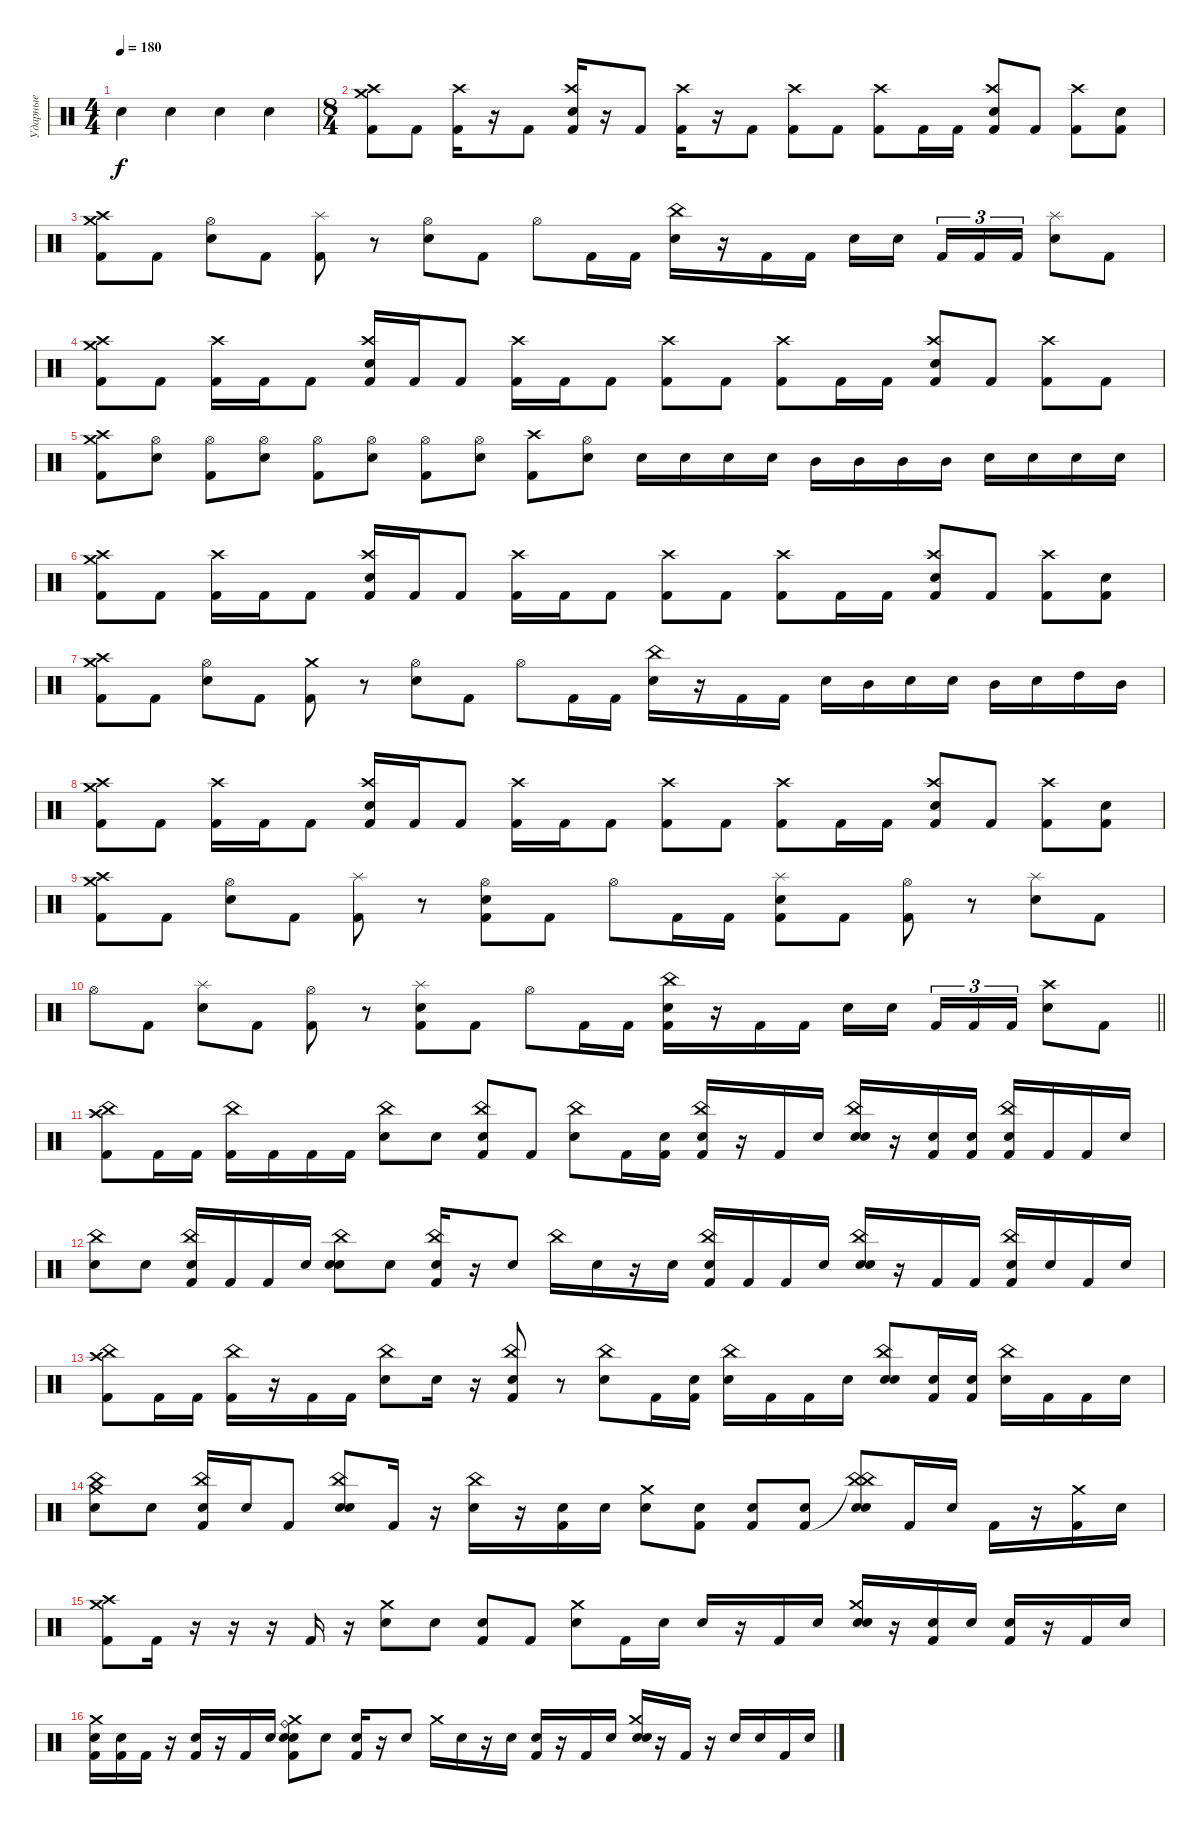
\track ("Ударные" "Ударные") {instrument percussion}
\staff {score}
\articulation defaults
\ts (4 4)
\tempo 180
\clef neutral
\ks c "Electric Snare (hit)".4{dy f} "Electric Snare (hit)".4 "Electric Snare (hit)".4 "Electric Snare (hit)".4
|
\ts (8 4)
("Crash high (hit)" "Crash medium (hit)" "Kick (hit) 2").8 "Kick (hit) 2".8 ("Crash high (hit)" "Kick (hit) 2").16 r.16 "Kick (hit) 2".8 ("Crash high (hit)" "Electric Snare (hit)" "Kick (hit) 2").16 r.16 "Kick (hit) 2".8 ("Crash high (hit)" "Kick (hit) 2").16 r.16 "Kick (hit) 2".8 ("Crash high (hit)" "Kick (hit) 2").8 "Kick (hit) 2".8 ("Crash high (hit)" "Kick (hit) 2").8 "Kick (hit) 2".16 "Kick (hit) 2".16 ("Crash high (hit)" "Electric Snare (hit)" "Kick (hit) 2").8 "Kick (hit) 2".8 ("Crash high (hit)" "Kick (hit) 2").8 ("Electric Snare (hit)" "Kick (hit) 2").8 |
("Crash medium (hit)" "Crash high (hit)" "Kick (hit) 2").8 "Kick (hit) 2".8 ("Hi-Hat (open)" "Electric Snare (hit)").8 "Kick (hit) 2".8 ("Splash (hit)" "Kick (hit) 2").8 r.8 ("Hi-Hat (open)" "Electric Snare (hit)").8 "Kick (hit) 2".8 "Hi-Hat (open)".8 "Kick (hit) 2".16 "Kick (hit) 2".16 ("China (hit)" "Electric Snare (hit)").16 r.16 "Kick (hit) 2".16 "Kick (hit) 2".16 "Electric Snare (hit)".16 "Electric Snare (hit)".16 "Kick (hit) 2".16{tu (3 2)} "Kick (hit) 2".16{tu (3 2)} "Kick (hit) 2".16{tu (3 2)} ("Splash (hit)" "Electric Snare (hit)").8 "Kick (hit) 2".8 |
("Crash high (hit)" "Crash medium (hit)" "Kick (hit) 2").8 "Kick (hit) 2".8 ("Crash high (hit)" "Kick (hit) 2").16 "Kick (hit) 2".16 "Kick (hit) 2".8 ("Crash high (hit)" "Electric Snare (hit)" "Kick (hit) 2").16 "Kick (hit) 2".16 "Kick (hit) 2".8 ("Crash high (hit)" "Kick (hit) 2").16 "Kick (hit) 2".16 "Kick (hit) 2".8 ("Crash high (hit)" "Kick (hit) 2").8 "Kick (hit) 2".8 ("Crash high (hit)" "Kick (hit) 2").8 "Kick (hit) 2".16 "Kick (hit) 2".16 ("Crash high (hit)" "Electric Snare (hit)" "Kick (hit) 2").8 "Kick (hit) 2".8 ("Crash high (hit)" "Kick (hit) 2").8 "Kick (hit) 2".8 |
("Crash high (hit)" "Crash medium (hit)" "Kick (hit) 2").8 ("Hi-Hat (open)" "Electric Snare (hit)").8 ("Hi-Hat (open)" "Kick (hit) 2").8 ("Hi-Hat (open)" "Electric Snare (hit)").8 ("Hi-Hat (open)" "Kick (hit) 2").8 ("Hi-Hat (open)" "Electric Snare (hit)").8 ("Hi-Hat (open)" "Kick (hit) 2").8 ("Hi-Hat (open)" "Electric Snare (hit)").8 ("Crash high (hit)" "Kick (hit) 2").8 ("Hi-Hat (open)" "Electric Snare (hit)").8 "Electric Snare (hit)".16 "Electric Snare (hit)".16 "Electric Snare (hit)".16 "Electric Snare (hit)".16 "Mid Tom (hit)".16 "Mid Tom (hit)".16 "Mid Tom (hit)".16 "Mid Tom (hit)".16 "Electric Snare (hit)".16 "Electric Snare (hit)".16 "Electric Snare (hit)".16 "Electric Snare (hit)".16 |
("Crash high (hit)" "Crash medium (hit)" "Kick (hit) 2").8 "Kick (hit) 2".8 ("Crash high (hit)" "Kick (hit) 2").16 "Kick (hit) 2".16 "Kick (hit) 2".8 ("Crash high (hit)" "Electric Snare (hit)" "Kick (hit) 2").16 "Kick (hit) 2".16 "Kick (hit) 2".8 ("Crash high (hit)" "Kick (hit) 2").16 "Kick (hit) 2".16 "Kick (hit) 2".8 ("Crash high (hit)" "Kick (hit) 2").8 "Kick (hit) 2".8 ("Crash high (hit)" "Kick (hit) 2").8 "Kick (hit) 2".16 "Kick (hit) 2".16 ("Crash high (hit)" "Electric Snare (hit)" "Kick (hit) 2").8 "Kick (hit) 2".8 ("Crash high (hit)" "Kick (hit) 2").8 ("Electric Snare (hit)" "Kick (hit) 2").8 |
("Crash medium (hit)" "Crash high (hit)" "Kick (hit) 2").8 "Kick (hit) 2".8 ("Hi-Hat (open)" "Electric Snare (hit)").8 "Kick (hit) 2".8 ("Crash medium (hit)" "Kick (hit) 2").8 r.8 ("Hi-Hat (open)" "Electric Snare (hit)").8 "Kick (hit) 2".8 "Hi-Hat (open)".8 "Kick (hit) 2".16 "Kick (hit) 2".16 ("China (hit)" "Electric Snare (hit)").16 r.16 "Kick (hit) 2".16 "Kick (hit) 2".16 "Electric Snare (hit)".16 "Mid Tom (hit)".16 "Electric Snare (hit)".16 "Electric Snare (hit)".16 "Mid Tom (hit)".16 "Electric Snare (hit)".16 "High Tom (hit)".16 "Mid Tom (hit)".16 |
("Crash high (hit)" "Crash medium (hit)" "Kick (hit) 2").8 "Kick (hit) 2".8 ("Crash high (hit)" "Kick (hit) 2").16 "Kick (hit) 2".16 "Kick (hit) 2".8 ("Crash high (hit)" "Electric Snare (hit)" "Kick (hit) 2").16 "Kick (hit) 2".16 "Kick (hit) 2".8 ("Crash high (hit)" "Kick (hit) 2").16 "Kick (hit) 2".16 "Kick (hit) 2".8 ("Crash high (hit)" "Kick (hit) 2").8 "Kick (hit) 2".8 ("Crash high (hit)" "Kick (hit) 2").8 "Kick (hit) 2".16 "Kick (hit) 2".16 ("Crash high (hit)" "Electric Snare (hit)" "Kick (hit) 2").8 "Kick (hit) 2".8 ("Crash high (hit)" "Kick (hit) 2").8 ("Electric Snare (hit)" "Kick (hit) 2").8 |
("Crash medium (hit)" "Crash high (hit)" "Kick (hit) 2").8 "Kick (hit) 2".8 ("Hi-Hat (open)" "Electric Snare (hit)").8 "Kick (hit) 2".8 ("Splash (hit)" "Kick (hit) 2").8 r.8 ("Hi-Hat (open)" "Electric Snare (hit)" "Kick (hit) 2").8 "Kick (hit) 2".8 "Hi-Hat (open)".8 "Kick (hit) 2".16 "Kick (hit) 2".16 ("Splash (hit)" "Electric Snare (hit)" "Kick (hit) 2").8 "Kick (hit) 2".8 ("Hi-Hat (open)" "Kick (hit) 2").8 r.8 ("Splash (hit)" "Electric Snare (hit)").8 "Kick (hit) 2".8 |
\barLineRight lightlight "Hi-Hat (open)".8 "Kick (hit) 2".8
("Splash (hit)" "Electric Snare (hit)").8 "Kick (hit) 2".8 ("Hi-Hat (open)" "Kick (hit) 2").8 r.8 ("Splash (hit)" "Electric Snare (hit)" "Kick (hit) 2").8 "Kick (hit) 2".8 "Hi-Hat (open)".8 "Kick (hit) 2".16 "Kick (hit) 2".16 ("China (hit)" "Electric Snare (hit)" "Kick (hit) 2").16 r.16 "Kick (hit) 2".16 "Kick (hit) 2".16 "Electric Snare (hit)".16 "Electric Snare (hit)".16 "Kick (hit) 2".16{tu (3 2)} "Kick (hit) 2".16{tu (3 2)} "Kick (hit) 2".16{tu (3 2)} ("Crash high (hit)" "Electric Snare (hit)").8 "Kick (hit) 2".8 |
("China (hit)" "Crash high (hit)" "Kick (hit) 2").8 "Kick (hit) 2".16 "Kick (hit) 2".16 ("China (hit)" "Kick (hit) 2").16 "Kick (hit) 2".16 "Kick (hit) 2".16 "Kick (hit) 2".16 ("China (hit)" "Electric Snare (hit)").8 "Snare (hit)".8 ("China (hit)" "Snare (hit)" "Kick (hit) 2").8 "Kick (hit) 2".8 ("China (hit)" "Snare (hit)").8 "Kick (hit) 2".16 ("Snare (hit)" "Kick (hit) 2").16 ("China (hit)" "Snare (hit)" "Kick (hit) 2").16 r.16 "Kick (hit) 2".16 "Snare (hit)".16 ("China (hit)" "Electric Snare (hit)" "Snare (hit)").16 r.16 ("Snare (hit)" "Kick (hit) 2").16 ("Snare (hit)" "Kick (hit) 2").16 ("China (hit)" "Snare (hit)" "Kick (hit) 2").16 "Kick (hit) 2".16 "Kick (hit) 2".16 "Snare (hit)".16 |
("China (hit)" "Snare (hit)").8 "Snare (hit)".8 ("China (hit)" "Snare (hit)" "Kick (hit) 2").16 "Kick (hit) 2".16 "Kick (hit) 2".16 "Snare (hit)".16 ("China (hit)" "Electric Snare (hit)" "Snare (hit)").8 "Snare (hit)".8 ("China (hit)" "Snare (hit)" "Kick (hit) 2").16 r.16 "Snare (hit)".8 "China (hit)".16 "Snare (hit)".16 r.16 "Snare (hit)".16 ("China (hit)" "Snare (hit)" "Kick (hit) 2").16 "Kick (hit) 2".16 "Kick (hit) 2".16 "Snare (hit)".16 ("China (hit)" "Electric Snare (hit)" "Snare (hit)").16 r.16 "Kick (hit) 2".16 "Kick (hit) 2".16 ("China (hit)" "Snare (hit)" "Kick (hit) 2").16 "Snare (hit)".16 "Kick (hit) 2".16 "Snare (hit)".16 |
("China (hit)" "Crash high (hit)" "Kick (hit) 2").8 "Kick (hit) 2".16 "Kick (hit) 2".16 ("China (hit)" "Kick (hit) 2").16 r.16 "Kick (hit) 2".16 "Kick (hit) 2".16 ("China (hit)" "Electric Snare (hit)").8 "Snare (hit)".16 r.16 ("China (hit)" "Snare (hit)" "Kick (hit) 2").8 r.8 ("China (hit)" "Snare (hit)").8 "Kick (hit) 2".16 ("Snare (hit)" "Kick (hit) 2").16 ("China (hit)" "Snare (hit)").16 "Kick (hit) 2".16 "Kick (hit) 2".16 "Snare (hit)".16 ("China (hit)" "Electric Snare (hit)" "Snare (hit)").8 ("Snare (hit)" "Kick (hit) 2").16 ("Snare (hit)" "Kick (hit) 2").16 ("China (hit)" "Snare (hit)").16 "Kick (hit) 2".16 "Kick (hit) 2".16 "Snare (hit)".16 |
("Crash medium (hit)" "China (hit)" "Snare (hit)").8 "Snare (hit)".8 ("China (hit)" "Snare (hit)" "Kick (hit) 2").16 "Snare (hit)".16 "Kick (hit) 2".8 ("China (hit)" "Electric Snare (hit)" "Snare (hit)").8 "Kick (hit) 2".16 r.16 ("China (hit)" "Snare (hit)").16 r.16 ("Snare (hit)" "Kick (hit) 2").16 "Snare (hit)".16 ("Crash medium (hit)" "Snare (hit)").8 ("Snare (hit)" "Kick (hit) 2").8 ("Snare (hit)" "Kick (hit) 2").8 ("Snare (hit)" "Kick (hit) 2").8 ("China (hit)" "China (hit)"{t} "Electric Snare (hit)" "Snare (hit)").8 "Kick (hit) 2".16 "Snare (hit)".16 "Kick (hit) 2".16 r.16 ("Crash medium (hit)" "Kick (hit) 2").16 "Snare (hit)".16 |
("Crash medium (hit)" "Crash high (hit)" "Kick (hit) 2").8 "Kick (hit) 2".16 r.16 r.16 r.16 "Kick (hit) 2".16 r.16 ("Crash medium (hit)" "Electric Snare (hit)").8 "Snare (hit)".8 ("Snare (hit)" "Kick (hit) 2").8 "Kick (hit) 2".8 ("Crash medium (hit)" "Snare (hit)").8 "Kick (hit) 2".16 "Snare (hit)".16 "Snare (hit)".16 r.16 "Kick (hit) 2".16 "Snare (hit)".16 ("Crash medium (hit)" "Electric Snare (hit)" "Snare (hit)").16 r.16 ("Snare (hit)" "Kick (hit) 2").16 "Snare (hit)".16 ("Snare (hit)" "Kick (hit) 2").16 r.16 "Kick (hit) 2".16 "Snare (hit)".16 |
("Crash medium (hit)" "Snare (hit)" "Kick (hit) 2").16 ("Snare (hit)" "Kick (hit) 2").16 "Kick (hit) 2".16 r.16 ("Snare (hit)" "Kick (hit) 2").16 r.16 "Kick (hit) 2".16 "Snare (hit)".16 ("Ride (bell)" "Crash medium (hit)" "Electric Snare (hit)" "Snare (hit)" "Kick (hit) 2").8 "Snare (hit)".8 ("Snare (hit)" "Kick (hit) 2").16 r.16 "Snare (hit)".8 "Crash medium (hit)".16 "Snare (hit)".16 r.16 "Snare (hit)".16 ("Snare (hit)" "Kick (hit) 2").16 r.16 "Kick (hit) 2".16 "Snare (hit)".16 ("Crash medium (hit)" "Electric Snare (hit)" "Snare (hit)").16 r.16 "Kick (hit) 2".16 r.16 "Snare (hit)".16 "Snare (hit)".16 "Kick (hit) 2".16 "Snare (hit)".16
